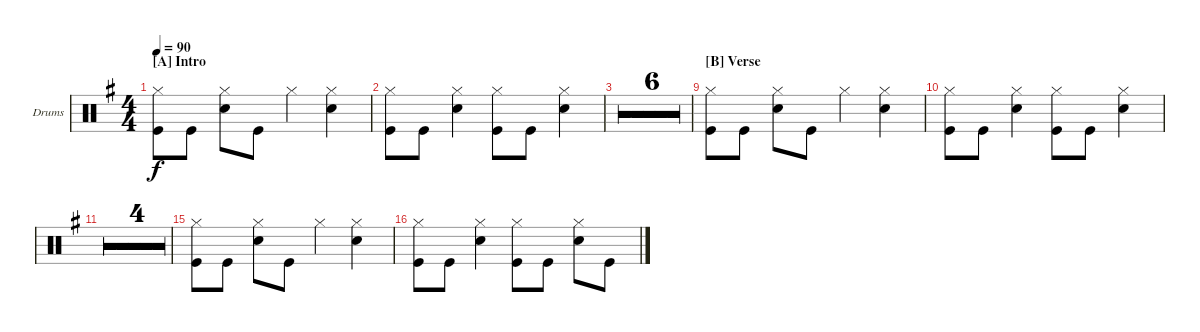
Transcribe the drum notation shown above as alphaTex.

\defaultSystemsLayout 4
\bracketExtendMode groupsimilarinstruments
\firstSystemTrackNameOrientation horizontal
\otherSystemsTrackNameOrientation horizontal
\track ("Matt Helders" "Drums") {multiBarRest instrument percussion}
\staff {score}
\articulation defaults
\ts (4 4)
\section ("A" "Intro")
\tempo 90
\clef neutral
\ks g
("Kick (hit)" "Hi-Hat (closed)").8{dy f} "Kick (hit)".8 ("Snare (hit) 2" "Hi-Hat (closed)").8 "Kick (hit)".8 "Hi-Hat (closed)".4 ("Snare (hit) 2" "Hi-Hat (closed)").4 |
("Kick (hit)" "Hi-Hat (closed)").8 "Kick (hit)".8 ("Snare (hit) 2" "Hi-Hat (closed)").4 ("Kick (hit)" "Hi-Hat (closed)").8 "Kick (hit)".8 ("Snare (hit) 2" "Hi-Hat (closed)").4 |
\simile firstofdouble
|
\simile secondofdouble
|
\simile firstofdouble
|
\simile secondofdouble
|
\simile firstofdouble
|
\simile secondofdouble
|
\section ("B" "Verse")
\simile none
("Kick (hit)" "Hi-Hat (closed)").8 "Kick (hit)".8 ("Snare (hit) 2" "Hi-Hat (closed)").8 "Kick (hit)".8 "Hi-Hat (closed)".4 ("Snare (hit) 2" "Hi-Hat (closed)").4 |
("Kick (hit)" "Hi-Hat (closed)").8 "Kick (hit)".8 ("Snare (hit) 2" "Hi-Hat (closed)").4 ("Kick (hit)" "Hi-Hat (closed)").8 "Kick (hit)".8 ("Snare (hit) 2" "Hi-Hat (closed)").4 |
\simile firstofdouble
|
\simile secondofdouble
|
\simile firstofdouble
|
\simile secondofdouble
|
\simile none
("Kick (hit)" "Hi-Hat (closed)").8 "Kick (hit)".8 ("Snare (hit) 2" "Hi-Hat (closed)").8 "Kick (hit)".8 "Hi-Hat (closed)".4 ("Snare (hit) 2" "Hi-Hat (closed)").4 |
("Kick (hit)" "Hi-Hat (closed)").8 "Kick (hit)".8 ("Snare (hit) 2" "Hi-Hat (closed)").4 ("Kick (hit)" "Hi-Hat (closed)").8 "Kick (hit)".8 ("Snare (hit) 2" "Hi-Hat (closed)").8 "Kick (hit)".8
